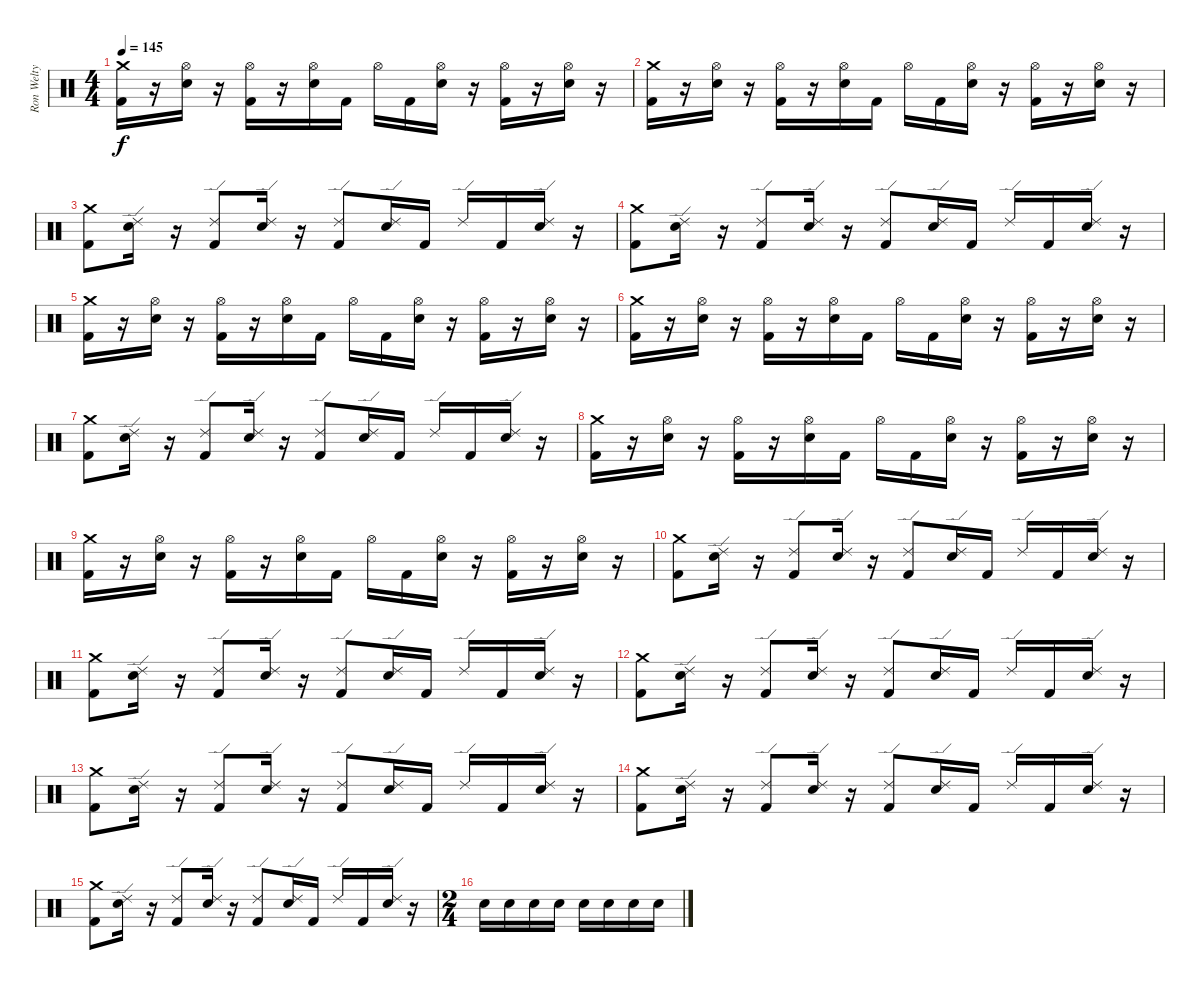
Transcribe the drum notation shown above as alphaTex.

\track ("Ron Welty" "Ron Welty") {instrument percussion}
\staff {score}
\articulation defaults
\ts (4 4)
\tempo 145
\clef neutral
\ks c
("Kick (hit) 2" "Crash medium (hit)").16{dy f} r.16 ("Hi-Hat (open)" "Snare (hit) 2").16 r.16 ("Hi-Hat (open)" "Kick (hit) 2").16 r.16 ("Hi-Hat (open)" "Snare (hit) 2").16 "Kick (hit) 2".16 "Hi-Hat (open)".16 "Kick (hit) 2".16 ("Hi-Hat (open)" "Snare (hit) 2").16 r.16 ("Hi-Hat (open)" "Kick (hit) 2").16 r.16 ("Hi-Hat (open)" "Snare (hit) 2").16 r.16 |
("Kick (hit) 2" "Crash medium (hit)").16 r.16 ("Hi-Hat (open)" "Snare (hit) 2").16 r.16 ("Hi-Hat (open)" "Kick (hit) 2").16 r.16 ("Hi-Hat (open)" "Snare (hit) 2").16 "Kick (hit) 2".16 "Hi-Hat (open)".16 "Kick (hit) 2".16 ("Hi-Hat (open)" "Snare (hit) 2").16 r.16 ("Hi-Hat (open)" "Kick (hit) 2").16 r.16 ("Hi-Hat (open)" "Snare (hit) 2").16 r.16 |
("Kick (hit) 2" "Crash medium (hit)").8 ("Snare (hit) 2" "Ride (edge) 2").16 r.16 ("Kick (hit) 2" "Ride (edge) 2").8 ("Snare (hit) 2" "Ride (edge) 2").16 r.16 ("Kick (hit) 2" "Ride (edge) 2").8 ("Snare (hit) 2" "Ride (edge) 2").16 "Kick (hit) 2".16 "Ride (edge) 2".16 "Kick (hit) 2".16 ("Snare (hit) 2" "Ride (edge) 2").16 r.16 |
("Kick (hit) 2" "Crash medium (hit)").8 ("Snare (hit) 2" "Ride (edge) 2").16 r.16 ("Kick (hit) 2" "Ride (edge) 2").8 ("Snare (hit) 2" "Ride (edge) 2").16 r.16 ("Kick (hit) 2" "Ride (edge) 2").8 ("Snare (hit) 2" "Ride (edge) 2").16 "Kick (hit) 2".16 "Ride (edge) 2".16 "Kick (hit) 2".16 ("Snare (hit) 2" "Ride (edge) 2").16 r.16 |
("Kick (hit) 2" "Crash medium (hit)").16 r.16 ("Hi-Hat (open)" "Snare (hit) 2").16 r.16 ("Hi-Hat (open)" "Kick (hit) 2").16 r.16 ("Hi-Hat (open)" "Snare (hit) 2").16 "Kick (hit) 2".16 "Hi-Hat (open)".16 "Kick (hit) 2".16 ("Hi-Hat (open)" "Snare (hit) 2").16 r.16 ("Hi-Hat (open)" "Kick (hit) 2").16 r.16 ("Hi-Hat (open)" "Snare (hit) 2").16 r.16 |
("Kick (hit) 2" "Crash medium (hit)").16 r.16 ("Hi-Hat (open)" "Snare (hit) 2").16 r.16 ("Hi-Hat (open)" "Kick (hit) 2").16 r.16 ("Hi-Hat (open)" "Snare (hit) 2").16 "Kick (hit) 2".16 "Hi-Hat (open)".16 "Kick (hit) 2".16 ("Hi-Hat (open)" "Snare (hit) 2").16 r.16 ("Hi-Hat (open)" "Kick (hit) 2").16 r.16 ("Hi-Hat (open)" "Snare (hit) 2").16 r.16 |
("Kick (hit) 2" "Crash medium (hit)").8 ("Snare (hit) 2" "Ride (edge) 2").16 r.16 ("Kick (hit) 2" "Ride (edge) 2").8 ("Snare (hit) 2" "Ride (edge) 2").16 r.16 ("Kick (hit) 2" "Ride (edge) 2").8 ("Snare (hit) 2" "Ride (edge) 2").16 "Kick (hit) 2".16 "Ride (edge) 2".16 "Kick (hit) 2".16 ("Snare (hit) 2" "Ride (edge) 2").16 r.16 |
("Kick (hit) 2" "Crash medium (hit)").16 r.16 ("Hi-Hat (open)" "Snare (hit) 2").16 r.16 ("Hi-Hat (open)" "Kick (hit) 2").16 r.16 ("Hi-Hat (open)" "Snare (hit) 2").16 "Kick (hit) 2".16 "Hi-Hat (open)".16 "Kick (hit) 2".16 ("Hi-Hat (open)" "Snare (hit) 2").16 r.16 ("Hi-Hat (open)" "Kick (hit) 2").16 r.16 ("Hi-Hat (open)" "Snare (hit) 2").16 r.16 |
("Kick (hit) 2" "Crash medium (hit)").16 r.16 ("Hi-Hat (open)" "Snare (hit) 2").16 r.16 ("Hi-Hat (open)" "Kick (hit) 2").16 r.16 ("Hi-Hat (open)" "Snare (hit) 2").16 "Kick (hit) 2".16 "Hi-Hat (open)".16 "Kick (hit) 2".16 ("Hi-Hat (open)" "Snare (hit) 2").16 r.16 ("Hi-Hat (open)" "Kick (hit) 2").16 r.16 ("Hi-Hat (open)" "Snare (hit) 2").16 r.16 |
("Kick (hit) 2" "Crash medium (hit)").8 ("Snare (hit) 2" "Ride (edge) 2").16 r.16 ("Kick (hit) 2" "Ride (edge) 2").8 ("Snare (hit) 2" "Ride (edge) 2").16 r.16 ("Kick (hit) 2" "Ride (edge) 2").8 ("Snare (hit) 2" "Ride (edge) 2").16 "Kick (hit) 2".16 "Ride (edge) 2".16 "Kick (hit) 2".16 ("Snare (hit) 2" "Ride (edge) 2").16 r.16 |
("Kick (hit) 2" "Crash medium (hit)").8 ("Snare (hit) 2" "Ride (edge) 2").16 r.16 ("Kick (hit) 2" "Ride (edge) 2").8 ("Snare (hit) 2" "Ride (edge) 2").16 r.16 ("Kick (hit) 2" "Ride (edge) 2").8 ("Snare (hit) 2" "Ride (edge) 2").16 "Kick (hit) 2".16 "Ride (edge) 2".16 "Kick (hit) 2".16 ("Snare (hit) 2" "Ride (edge) 2").16 r.16 |
("Kick (hit) 2" "Crash medium (hit)").8 ("Snare (hit) 2" "Ride (edge) 2").16 r.16 ("Kick (hit) 2" "Ride (edge) 2").8 ("Snare (hit) 2" "Ride (edge) 2").16 r.16 ("Kick (hit) 2" "Ride (edge) 2").8 ("Snare (hit) 2" "Ride (edge) 2").16 "Kick (hit) 2".16 "Ride (edge) 2".16 "Kick (hit) 2".16 ("Snare (hit) 2" "Ride (edge) 2").16 r.16 |
("Kick (hit) 2" "Crash medium (hit)").8 ("Snare (hit) 2" "Ride (edge) 2").16 r.16 ("Kick (hit) 2" "Ride (edge) 2").8 ("Snare (hit) 2" "Ride (edge) 2").16 r.16 ("Kick (hit) 2" "Ride (edge) 2").8 ("Snare (hit) 2" "Ride (edge) 2").16 "Kick (hit) 2".16 "Ride (edge) 2".16 "Kick (hit) 2".16 ("Snare (hit) 2" "Ride (edge) 2").16 r.16 |
("Kick (hit) 2" "Crash medium (hit)").8 ("Snare (hit) 2" "Ride (edge) 2").16 r.16 ("Kick (hit) 2" "Ride (edge) 2").8 ("Snare (hit) 2" "Ride (edge) 2").16 r.16 ("Kick (hit) 2" "Ride (edge) 2").8 ("Snare (hit) 2" "Ride (edge) 2").16 "Kick (hit) 2".16 "Ride (edge) 2".16 "Kick (hit) 2".16 ("Snare (hit) 2" "Ride (edge) 2").16 r.16 |
("Kick (hit) 2" "Crash medium (hit)").8 ("Snare (hit) 2" "Ride (edge) 2").16 r.16 ("Kick (hit) 2" "Ride (edge) 2").8 ("Snare (hit) 2" "Ride (edge) 2").16 r.16 ("Kick (hit) 2" "Ride (edge) 2").8 ("Snare (hit) 2" "Ride (edge) 2").16 "Kick (hit) 2".16 "Ride (edge) 2".16 "Kick (hit) 2".16 ("Snare (hit) 2" "Ride (edge) 2").16 r.16 |
\ts (2 4)
"Snare (hit) 2".16 "Snare (hit) 2".16 "Snare (hit) 2".16 "Snare (hit) 2".16 "Snare (hit) 2".16 "Snare (hit) 2".16 "Snare (hit) 2".16 "Snare (hit) 2".16
